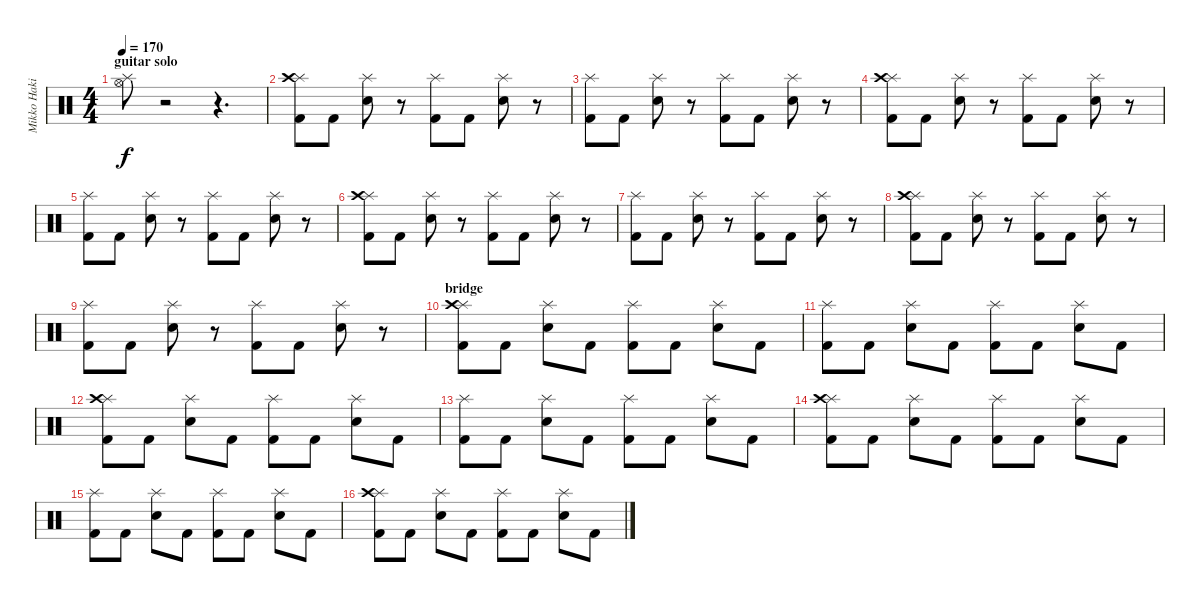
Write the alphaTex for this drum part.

\track ("Mikko Hakila - drums" "Mikko Haki") {instrument percussion}
\staff {score}
\articulation defaults
\ts (4 4)
\section ("" "guitar solo")
\tempo 170
\clef neutral
\ks c
("Hi-Hat (open)" "Splash (hit)").8{dy f} r.2 r.4{d} |
("Splash (hit)" "Crash high (hit)" "Kick (hit) 2").8 "Kick (hit) 2".8 ("Splash (hit)" "Snare (hit) 2").8 r.8 ("Splash (hit)" "Kick (hit) 2").8 "Kick (hit) 2".8 ("Splash (hit)" "Snare (hit) 2").8 r.8 |
("Splash (hit)" "Kick (hit) 2").8 "Kick (hit) 2".8 ("Splash (hit)" "Snare (hit) 2").8 r.8 ("Splash (hit)" "Kick (hit) 2").8 "Kick (hit) 2".8 ("Splash (hit)" "Snare (hit) 2").8 r.8 |
("Splash (hit)" "Crash high (hit)" "Kick (hit) 2").8 "Kick (hit) 2".8 ("Splash (hit)" "Snare (hit) 2").8 r.8 ("Splash (hit)" "Kick (hit) 2").8 "Kick (hit) 2".8 ("Splash (hit)" "Snare (hit) 2").8 r.8 |
("Splash (hit)" "Kick (hit) 2").8 "Kick (hit) 2".8 ("Splash (hit)" "Snare (hit) 2").8 r.8 ("Splash (hit)" "Kick (hit) 2").8 "Kick (hit) 2".8 ("Splash (hit)" "Snare (hit) 2").8 r.8 |
("Splash (hit)" "Crash high (hit)" "Kick (hit) 2").8 "Kick (hit) 2".8 ("Splash (hit)" "Snare (hit) 2").8 r.8 ("Splash (hit)" "Kick (hit) 2").8 "Kick (hit) 2".8 ("Splash (hit)" "Snare (hit) 2").8 r.8 |
("Splash (hit)" "Kick (hit) 2").8 "Kick (hit) 2".8 ("Splash (hit)" "Snare (hit) 2").8 r.8 ("Splash (hit)" "Kick (hit) 2").8 "Kick (hit) 2".8 ("Splash (hit)" "Snare (hit) 2").8 r.8 |
("Splash (hit)" "Crash high (hit)" "Kick (hit) 2").8 "Kick (hit) 2".8 ("Splash (hit)" "Snare (hit) 2").8 r.8 ("Splash (hit)" "Kick (hit) 2").8 "Kick (hit) 2".8 ("Splash (hit)" "Snare (hit) 2").8 r.8 |
("Splash (hit)" "Kick (hit) 2").8 "Kick (hit) 2".8 ("Splash (hit)" "Snare (hit) 2").8 r.8 ("Splash (hit)" "Kick (hit) 2").8 "Kick (hit) 2".8 ("Splash (hit)" "Snare (hit) 2").8 r.8 |
\section ("" "bridge")
("Splash (hit)" "Crash high (hit)" "Kick (hit) 2").8 "Kick (hit) 2".8 ("Splash (hit)" "Snare (hit) 2").8 "Kick (hit) 2".8 ("Splash (hit)" "Kick (hit) 2").8 "Kick (hit) 2".8 ("Splash (hit)" "Snare (hit) 2").8 "Kick (hit) 2".8 |
("Splash (hit)" "Kick (hit) 2").8 "Kick (hit) 2".8 ("Splash (hit)" "Snare (hit) 2").8 "Kick (hit) 2".8 ("Splash (hit)" "Kick (hit) 2").8 "Kick (hit) 2".8 ("Splash (hit)" "Snare (hit) 2").8 "Kick (hit) 2".8 |
("Splash (hit)" "Crash high (hit)" "Kick (hit) 2").8 "Kick (hit) 2".8 ("Splash (hit)" "Snare (hit) 2").8 "Kick (hit) 2".8 ("Splash (hit)" "Kick (hit) 2").8 "Kick (hit) 2".8 ("Splash (hit)" "Snare (hit) 2").8 "Kick (hit) 2".8 |
("Splash (hit)" "Kick (hit) 2").8 "Kick (hit) 2".8 ("Splash (hit)" "Snare (hit) 2").8 "Kick (hit) 2".8 ("Splash (hit)" "Kick (hit) 2").8 "Kick (hit) 2".8 ("Splash (hit)" "Snare (hit) 2").8 "Kick (hit) 2".8 |
("Splash (hit)" "Crash high (hit)" "Kick (hit) 2").8 "Kick (hit) 2".8 ("Splash (hit)" "Snare (hit) 2").8 "Kick (hit) 2".8 ("Splash (hit)" "Kick (hit) 2").8 "Kick (hit) 2".8 ("Splash (hit)" "Snare (hit) 2").8 "Kick (hit) 2".8 |
("Splash (hit)" "Kick (hit) 2").8 "Kick (hit) 2".8 ("Splash (hit)" "Snare (hit) 2").8 "Kick (hit) 2".8 ("Splash (hit)" "Kick (hit) 2").8 "Kick (hit) 2".8 ("Splash (hit)" "Snare (hit) 2").8 "Kick (hit) 2".8 |
("Splash (hit)" "Crash high (hit)" "Kick (hit) 2").8 "Kick (hit) 2".8 ("Splash (hit)" "Snare (hit) 2").8 "Kick (hit) 2".8 ("Splash (hit)" "Kick (hit) 2").8 "Kick (hit) 2".8 ("Splash (hit)" "Snare (hit) 2").8 "Kick (hit) 2".8
